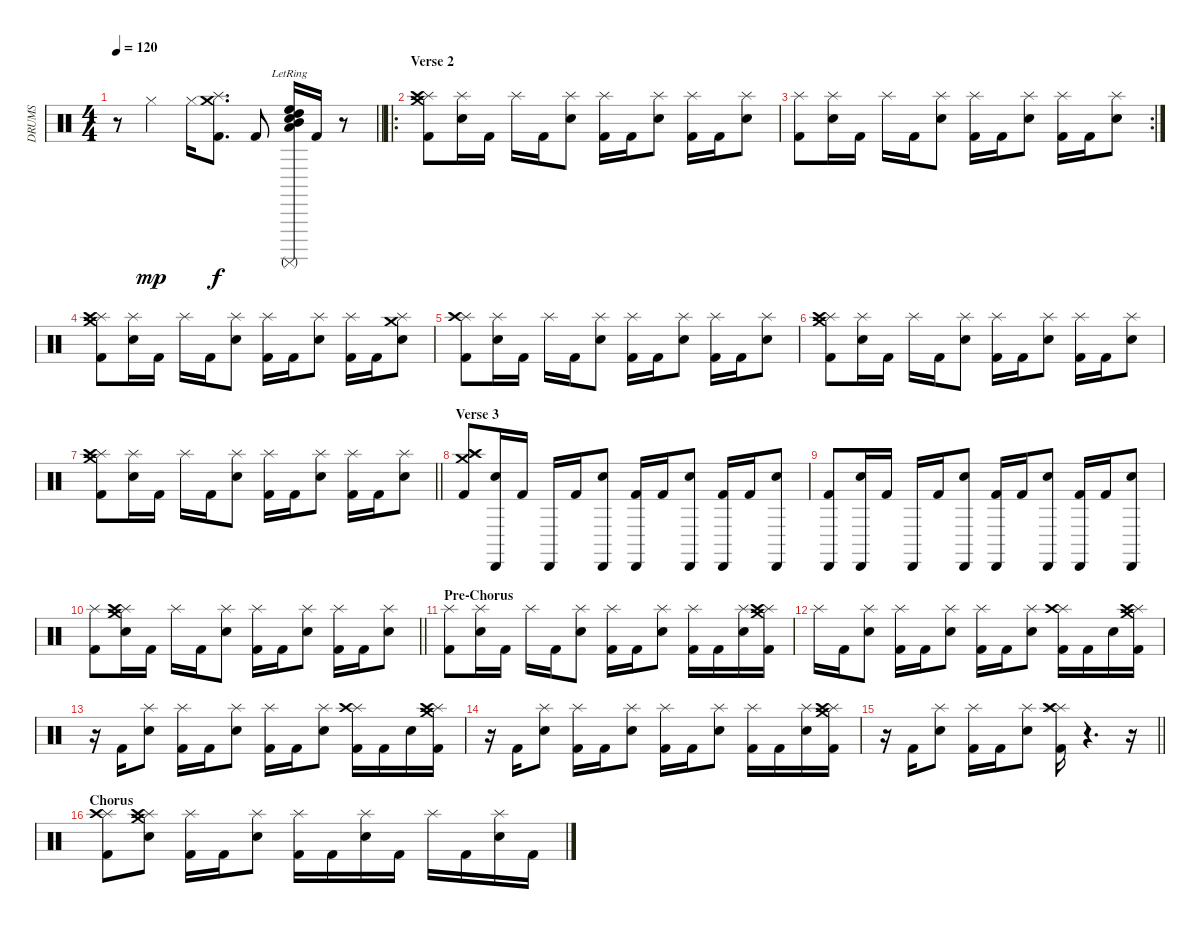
\track ("DRUMS" "DRUMS") {instrument percussion}
\staff {score}
\articulation defaults
\ts (4 4)
\tempo 120
\clef neutral
\barLineRight lightlight
\ks c
r.8{dy f} "Hi-Hat (closed)".4{dy mp} "Hi-Hat (closed)".16 ("Crash medium (hit)" "Splash (hit)" "Kick (hit) 2").8{d dy f} "Kick (hit) 2".8 ("Low Floor Tom (hit)"{lr} "Surdo (mute)"{lr} "Mid Tom (hit)"{lr} "High Tom (hit)"{lr} "High Floor Tom (hit)"{lr} "Snare (hit) 2"{lr}).16 "Kick (hit) 2".16 r.8 |
\ro
\section ("" "Verse 2")
("Crash medium (hit)" "Splash (hit)" "Crash high (hit)" "Kick (hit) 2").8 ("Splash (hit)" "Electric Snare (hit)").16 "Kick (hit) 2".16 "Splash (hit)".16 "Kick (hit) 2".16 ("Splash (hit)" "Electric Snare (hit)").8 ("Splash (hit)" "Kick (hit) 2").16 "Kick (hit) 2".16 ("Splash (hit)" "Electric Snare (hit)").8 ("Splash (hit)" "Kick (hit) 2").16 "Kick (hit) 2".16 ("Splash (hit)" "Electric Snare (hit)").8 |
\rc 2
("Splash (hit)" "Kick (hit) 2").8 ("Splash (hit)" "Electric Snare (hit)").16 "Kick (hit) 2".16 "Splash (hit)".16 "Kick (hit) 2".16 ("Splash (hit)" "Electric Snare (hit)").8 ("Splash (hit)" "Kick (hit) 2").16 "Kick (hit) 2".16 ("Splash (hit)" "Electric Snare (hit)").8 ("Splash (hit)" "Kick (hit) 2").16 "Kick (hit) 2".16 ("Splash (hit)" "Electric Snare (hit)").8 |
("Crash medium (hit)" "Splash (hit)" "Crash high (hit)" "Kick (hit) 2").8 ("Splash (hit)" "Electric Snare (hit)").16 "Kick (hit) 2".16 "Splash (hit)".16 "Kick (hit) 2".16 ("Splash (hit)" "Electric Snare (hit)").8 ("Splash (hit)" "Kick (hit) 2").16 "Kick (hit) 2".16 ("Splash (hit)" "Electric Snare (hit)").8 ("Splash (hit)" "Kick (hit) 2").16 "Kick (hit) 2".16 ("Crash medium (hit)" "Splash (hit)" "Electric Snare (hit)").8 |
("Splash (hit)" "Crash high (hit)" "Kick (hit) 2").8 ("Splash (hit)" "Electric Snare (hit)").16 "Kick (hit) 2".16 "Splash (hit)".16 "Kick (hit) 2".16 ("Splash (hit)" "Electric Snare (hit)").8 ("Splash (hit)" "Kick (hit) 2").16 "Kick (hit) 2".16 ("Splash (hit)" "Electric Snare (hit)").8 ("Splash (hit)" "Kick (hit) 2").16 "Kick (hit) 2".16 ("Splash (hit)" "Electric Snare (hit)").8 |
("Crash medium (hit)" "Splash (hit)" "Crash high (hit)" "Kick (hit) 2").8 ("Splash (hit)" "Electric Snare (hit)").16 "Kick (hit) 2".16 "Splash (hit)".16 "Kick (hit) 2".16 ("Splash (hit)" "Electric Snare (hit)").8 ("Splash (hit)" "Kick (hit) 2").16 "Kick (hit) 2".16 ("Splash (hit)" "Electric Snare (hit)").8 ("Splash (hit)" "Kick (hit) 2").16 "Kick (hit) 2".16 ("Splash (hit)" "Electric Snare (hit)").8 |
\barLineRight lightlight
("Crash medium (hit)" "Splash (hit)" "Crash high (hit)" "Kick (hit) 2").8 ("Splash (hit)" "Electric Snare (hit)").16 "Kick (hit) 2".16 "Splash (hit)".16 "Kick (hit) 2".16 ("Splash (hit)" "Electric Snare (hit)").8 ("Splash (hit)" "Kick (hit) 2").16 "Kick (hit) 2".16 ("Splash (hit)" "Electric Snare (hit)").8 ("Splash (hit)" "Kick (hit) 2").16 "Kick (hit) 2".16 ("Splash (hit)" "Electric Snare (hit)").8 |
\section ("" "Verse 3")
("Crash medium (hit)" "Splash (hit)" "Crash high (hit)" "Kick (hit) 2").8 ("Cabasa (hit)" "Electric Snare (hit)").16 "Kick (hit) 2".16 "Cabasa (hit)".16 "Kick (hit) 2".16 ("Cabasa (hit)" "Electric Snare (hit)").8 ("Cabasa (hit)" "Kick (hit) 2").16 "Kick (hit) 2".16 ("Cabasa (hit)" "Electric Snare (hit)").8 ("Cabasa (hit)" "Kick (hit) 2").16 "Kick (hit) 2".16 ("Cabasa (hit)" "Electric Snare (hit)").8 |
("Cabasa (hit)" "Kick (hit) 2").8 ("Cabasa (hit)" "Electric Snare (hit)").16 "Kick (hit) 2".16 "Cabasa (hit)".16 "Kick (hit) 2".16 ("Cabasa (hit)" "Electric Snare (hit)").8 ("Cabasa (hit)" "Kick (hit) 2").16 "Kick (hit) 2".16 ("Cabasa (hit)" "Electric Snare (hit)").8 ("Cabasa (hit)" "Kick (hit) 2").16 "Kick (hit) 2".16 ("Cabasa (hit)" "Electric Snare (hit)").8 |
\barLineRight lightlight
("Splash (hit)" "Kick (hit) 2").8 ("Crash medium (hit)" "Splash (hit)" "Crash high (hit)" "Electric Snare (hit)").16 "Kick (hit) 2".16 "Splash (hit)".16 "Kick (hit) 2".16 ("Splash (hit)" "Electric Snare (hit)").8 ("Splash (hit)" "Kick (hit) 2").16 "Kick (hit) 2".16 ("Splash (hit)" "Electric Snare (hit)").8 ("Splash (hit)" "Kick (hit) 2").16 "Kick (hit) 2".16 ("Splash (hit)" "Electric Snare (hit)").8 |
\section ("" "Pre-Chorus")
("Splash (hit)" "Kick (hit) 2").8 ("Splash (hit)" "Electric Snare (hit)").16 "Kick (hit) 2".16 "Splash (hit)".16 "Kick (hit) 2".16 ("Splash (hit)" "Electric Snare (hit)").8 ("Splash (hit)" "Kick (hit) 2").16 "Kick (hit) 2".16 ("Splash (hit)" "Electric Snare (hit)").8 ("Splash (hit)" "Kick (hit) 2").16 "Kick (hit) 2".16 ("Splash (hit)" "Electric Snare (hit)").16 ("Crash medium (hit)" "Splash (hit)" "Crash high (hit)" "Kick (hit) 2").16 |
"Splash (hit)".16 "Kick (hit) 2".16 ("Splash (hit)" "Electric Snare (hit)").8 ("Splash (hit)" "Kick (hit) 2").16 "Kick (hit) 2".16 ("Splash (hit)" "Electric Snare (hit)").8 ("Splash (hit)" "Kick (hit) 2").16 "Kick (hit) 2".16 ("Splash (hit)" "Electric Snare (hit)").8 ("Splash (hit)" "Crash high (hit)" "Kick (hit) 2").16 "Kick (hit) 2".16 "Electric Snare (hit)".16 ("Crash medium (hit)" "Splash (hit)" "Crash high (hit)" "Kick (hit) 2").16 |
r.16 "Kick (hit) 2".16 ("Splash (hit)" "Electric Snare (hit)").8 ("Splash (hit)" "Kick (hit) 2").16 "Kick (hit) 2".16 ("Splash (hit)" "Electric Snare (hit)").8 ("Splash (hit)" "Kick (hit) 2").16 "Kick (hit) 2".16 ("Splash (hit)" "Electric Snare (hit)").8 ("Splash (hit)" "Crash high (hit)" "Kick (hit) 2").16 "Kick (hit) 2".16 "Electric Snare (hit)".16 ("Crash medium (hit)" "Splash (hit)" "Crash high (hit)" "Kick (hit) 2").16 |
r.16 "Kick (hit) 2".16 ("Splash (hit)" "Electric Snare (hit)").8 ("Splash (hit)" "Kick (hit) 2").16 "Kick (hit) 2".16 ("Splash (hit)" "Electric Snare (hit)").8 ("Splash (hit)" "Kick (hit) 2").16 "Kick (hit) 2".16 ("Splash (hit)" "Electric Snare (hit)").8 ("Splash (hit)" "Kick (hit) 2").16 "Kick (hit) 2".16 ("Splash (hit)" "Electric Snare (hit)").16 ("Crash medium (hit)" "Splash (hit)" "Crash high (hit)" "Kick (hit) 2").16 |
\barLineRight lightlight
r.16 "Kick (hit) 2".16 ("Splash (hit)" "Electric Snare (hit)").8 ("Splash (hit)" "Kick (hit) 2").16 "Kick (hit) 2".16 ("Splash (hit)" "Electric Snare (hit)").8 ("Splash (hit)" "Splash (hit)" "Crash high (hit)" "Kick (hit) 2").16 r.4{d} r.16 |
\section ("" "Chorus")
("Splash (hit)" "Crash high (hit)" "Kick (hit) 2").8 ("Crash medium (hit)" "Splash (hit)" "Crash high (hit)" "Electric Snare (hit)").8 ("Splash (hit)" "Kick (hit) 2").16 "Kick (hit) 2".16 ("Splash (hit)" "Electric Snare (hit)").8 ("Splash (hit)" "Kick (hit) 2").16 "Kick (hit) 2".16 ("Splash (hit)" "Electric Snare (hit)").16 "Kick (hit) 2".16 "Splash (hit)".16 "Kick (hit) 2".16 ("Splash (hit)" "Electric Snare (hit)").16 "Kick (hit) 2".16
